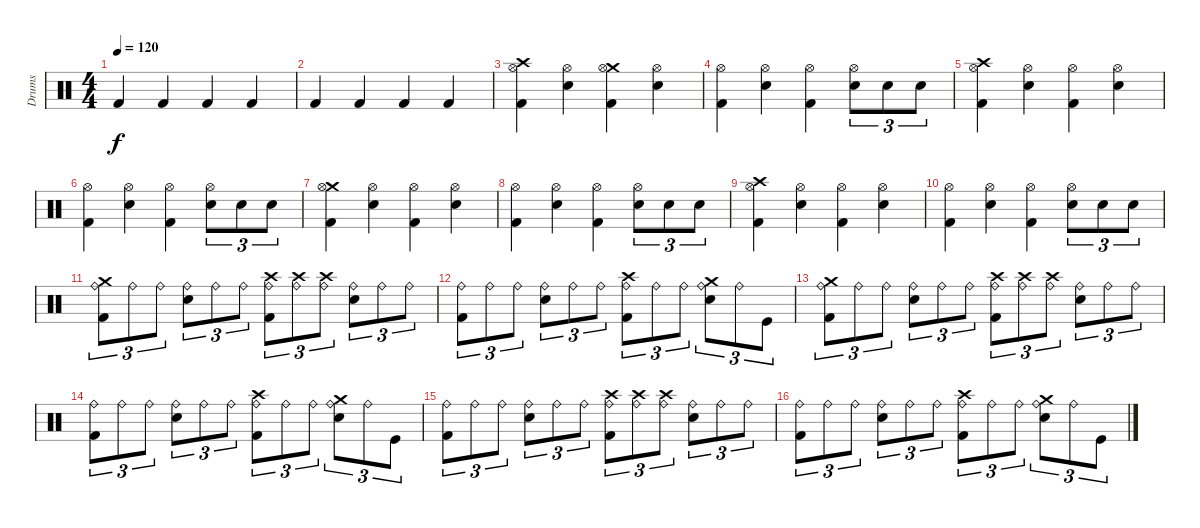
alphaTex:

\track ("Drums" "Drums") {instrument percussion}
\staff {score}
\articulation defaults
\ts (4 4)
\tempo 120
\clef neutral
\ks c "Kick (hit) 2".4{dy f} "Kick (hit) 2".4 "Kick (hit) 2".4 "Kick (hit) 2".4
|
"Kick (hit) 2".4 "Kick (hit) 2".4 "Kick (hit) 2".4 "Kick (hit) 2".4 |
("Crash high (hit)" "Hi-Hat (open)" "Kick (hit) 2").4 ("Hi-Hat (open)" "Snare (hit) 2").4 ("Crash medium (hit)" "Hi-Hat (open)" "Kick (hit) 2").4 ("Hi-Hat (open)" "Snare (hit) 2").4 |
("Hi-Hat (open)" "Kick (hit) 2").4 ("Hi-Hat (open)" "Snare (hit) 2").4 ("Hi-Hat (open)" "Kick (hit) 2").4 ("Hi-Hat (open)" "Snare (hit) 2").8{tu (3 2)} "Snare (hit) 2".8{tu (3 2)} "Snare (hit) 2".8{tu (3 2)} |
("Crash high (hit)" "Hi-Hat (open)" "Kick (hit) 2").4 ("Hi-Hat (open)" "Snare (hit) 2").4 ("Hi-Hat (open)" "Kick (hit) 2").4 ("Hi-Hat (open)" "Snare (hit) 2").4 |
("Hi-Hat (open)" "Kick (hit) 2").4 ("Hi-Hat (open)" "Snare (hit) 2").4 ("Hi-Hat (open)" "Kick (hit) 2").4 ("Hi-Hat (open)" "Snare (hit) 2").8{tu (3 2)} "Snare (hit) 2".8{tu (3 2)} "Snare (hit) 2".8{tu (3 2)} |
("Crash medium (hit)" "Hi-Hat (open)" "Kick (hit) 2").4 ("Hi-Hat (open)" "Snare (hit) 2").4 ("Hi-Hat (open)" "Kick (hit) 2").4 ("Hi-Hat (open)" "Snare (hit) 2").4 |
("Hi-Hat (open)" "Kick (hit) 2").4 ("Hi-Hat (open)" "Snare (hit) 2").4 ("Hi-Hat (open)" "Kick (hit) 2").4 ("Hi-Hat (open)" "Snare (hit) 2").8{tu (3 2)} "Snare (hit) 2".8{tu (3 2)} "Snare (hit) 2".8{tu (3 2)} |
("Crash high (hit)" "Hi-Hat (open)" "Kick (hit) 2").4 ("Hi-Hat (open)" "Snare (hit) 2").4 ("Hi-Hat (open)" "Kick (hit) 2").4 ("Hi-Hat (open)" "Snare (hit) 2").4 |
("Hi-Hat (open)" "Kick (hit) 2").4 ("Hi-Hat (open)" "Snare (hit) 2").4 ("Hi-Hat (open)" "Kick (hit) 2").4 ("Hi-Hat (open)" "Snare (hit) 2").8{tu (3 2)} "Snare (hit) 2".8{tu (3 2)} "Snare (hit) 2".8{tu (3 2)} |
("Crash medium (hit)" "Ride (bell)" "Kick (hit) 2").8{tu (3 2)} "Ride (bell)".8{tu (3 2)} "Ride (bell)".8{tu (3 2)} ("Ride (bell)" "Snare (hit) 2").8{tu (3 2)} "Ride (bell)".8{tu (3 2)} "Ride (bell)".8{tu (3 2)} ("Crash high (hit)" "Ride (bell)" "Kick (hit) 2").8{tu (3 2)} ("Crash high (hit)" "Ride (bell)").8{tu (3 2)} ("Crash high (hit)" "Ride (bell)").8{tu (3 2)} ("Ride (bell)" "Snare (hit) 2").8{tu (3 2)} "Ride (bell)".8{tu (3 2)} "Ride (bell)".8{tu (3 2)} |
("Ride (bell)" "Kick (hit) 2").8{tu (3 2)} "Ride (bell)".8{tu (3 2)} "Ride (bell)".8{tu (3 2)} ("Ride (bell)" "Snare (hit) 2").8{tu (3 2)} "Ride (bell)".8{tu (3 2)} "Ride (bell)".8{tu (3 2)} ("Crash high (hit)" "Ride (bell)" "Kick (hit) 2").8{tu (3 2)} "Ride (bell)".8{tu (3 2)} "Ride (bell)".8{tu (3 2)} ("Crash medium (hit)" "Ride (bell)" "Snare (hit) 2").8{tu (3 2)} "Ride (bell)".8{tu (3 2)} "Kick (hit)".8{tu (3 2)} |
("Crash medium (hit)" "Ride (bell)" "Kick (hit) 2").8{tu (3 2)} "Ride (bell)".8{tu (3 2)} "Ride (bell)".8{tu (3 2)} ("Ride (bell)" "Snare (hit) 2").8{tu (3 2)} "Ride (bell)".8{tu (3 2)} "Ride (bell)".8{tu (3 2)} ("Crash high (hit)" "Ride (bell)" "Kick (hit) 2").8{tu (3 2)} ("Crash high (hit)" "Ride (bell)").8{tu (3 2)} ("Crash high (hit)" "Ride (bell)").8{tu (3 2)} ("Ride (bell)" "Snare (hit) 2").8{tu (3 2)} "Ride (bell)".8{tu (3 2)} "Ride (bell)".8{tu (3 2)} |
("Ride (bell)" "Kick (hit) 2").8{tu (3 2)} "Ride (bell)".8{tu (3 2)} "Ride (bell)".8{tu (3 2)} ("Ride (bell)" "Snare (hit) 2").8{tu (3 2)} "Ride (bell)".8{tu (3 2)} "Ride (bell)".8{tu (3 2)} ("Crash high (hit)" "Ride (bell)" "Kick (hit) 2").8{tu (3 2)} "Ride (bell)".8{tu (3 2)} "Ride (bell)".8{tu (3 2)} ("Crash medium (hit)" "Ride (bell)" "Snare (hit) 2").8{tu (3 2)} "Ride (bell)".8{tu (3 2)} "Kick (hit)".8{tu (3 2)} |
("Ride (bell)" "Kick (hit) 2").8{tu (3 2)} "Ride (bell)".8{tu (3 2)} "Ride (bell)".8{tu (3 2)} ("Ride (bell)" "Snare (hit) 2").8{tu (3 2)} "Ride (bell)".8{tu (3 2)} "Ride (bell)".8{tu (3 2)} ("Crash high (hit)" "Ride (bell)" "Kick (hit) 2").8{tu (3 2)} ("Crash high (hit)" "Ride (bell)").8{tu (3 2)} ("Crash high (hit)" "Ride (bell)").8{tu (3 2)} ("Ride (bell)" "Snare (hit) 2").8{tu (3 2)} "Ride (bell)".8{tu (3 2)} "Ride (bell)".8{tu (3 2)} |
("Ride (bell)" "Kick (hit) 2").8{tu (3 2)} "Ride (bell)".8{tu (3 2)} "Ride (bell)".8{tu (3 2)} ("Ride (bell)" "Snare (hit) 2").8{tu (3 2)} "Ride (bell)".8{tu (3 2)} "Ride (bell)".8{tu (3 2)} ("Crash high (hit)" "Ride (bell)" "Kick (hit) 2").8{tu (3 2)} "Ride (bell)".8{tu (3 2)} "Ride (bell)".8{tu (3 2)} ("Crash medium (hit)" "Ride (bell)" "Snare (hit) 2").8{tu (3 2)} "Ride (bell)".8{tu (3 2)} "Kick (hit)".8{tu (3 2)}
